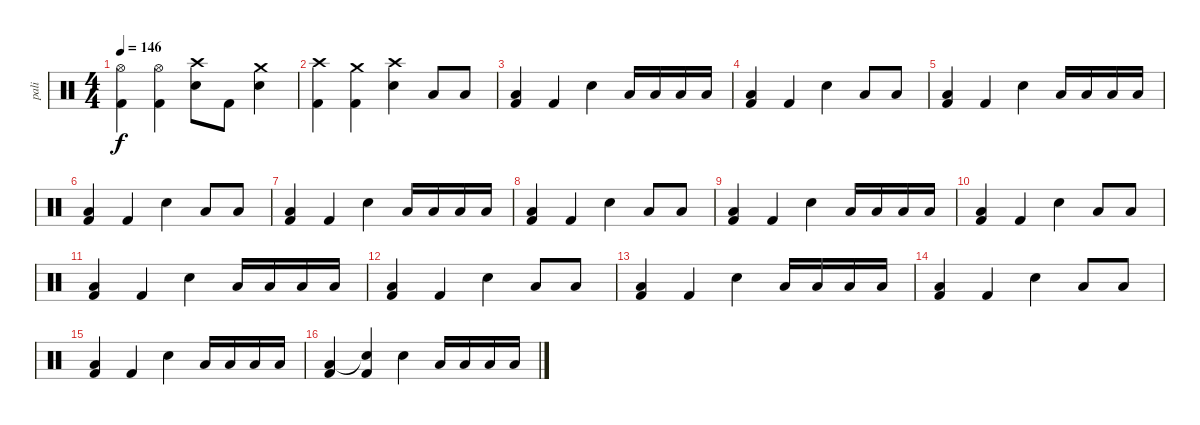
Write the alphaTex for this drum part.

\track ("pali" "pali") {instrument percussion}
\staff {score}
\articulation defaults
\ts (4 4)
\tempo 146
\clef neutral
\ks c
("Kick (hit) 2" "Hi-Hat (open)").4{dy f} ("Kick (hit) 2" "Hi-Hat (open)").4 ("Electric Snare (hit)" "Crash high (hit)").8 "Kick (hit) 2".8 ("Electric Snare (hit)" "Crash medium (hit)").4 |
("Kick (hit) 2" "Crash high (hit)").4 ("Kick (hit) 2" "Crash medium (hit)").4 ("Electric Snare (hit)" "Crash high (hit)").4 "Low Tom (hit)".8 "Low Tom (hit)".8 |
("Kick (hit) 2" "Low Floor Tom (hit)").4 "Kick (hit) 2".4 "Electric Snare (hit)".4 "Low Tom (hit)".16 "Low Tom (hit)".16 "Low Tom (hit)".16 "Low Tom (hit)".16 |
("Kick (hit) 2" "Low Floor Tom (hit)").4 "Kick (hit) 2".4 "Electric Snare (hit)".4 "Low Tom (hit)".8 "Low Tom (hit)".8 |
("Kick (hit) 2" "Low Floor Tom (hit)").4 "Kick (hit) 2".4 "Electric Snare (hit)".4 "Low Tom (hit)".16 "Low Tom (hit)".16 "Low Tom (hit)".16 "Low Tom (hit)".16 |
("Kick (hit) 2" "Low Floor Tom (hit)").4 "Kick (hit) 2".4 "Electric Snare (hit)".4 "Low Tom (hit)".8 "Low Tom (hit)".8 |
("Kick (hit) 2" "Low Floor Tom (hit)").4 "Kick (hit) 2".4 "Electric Snare (hit)".4 "Low Tom (hit)".16 "Low Tom (hit)".16 "Low Tom (hit)".16 "Low Tom (hit)".16 |
("Kick (hit) 2" "Low Floor Tom (hit)").4 "Kick (hit) 2".4 "Electric Snare (hit)".4 "Low Tom (hit)".8 "Low Tom (hit)".8 |
("Kick (hit) 2" "Low Floor Tom (hit)").4 "Kick (hit) 2".4 "Electric Snare (hit)".4 "Low Tom (hit)".16 "Low Tom (hit)".16 "Low Tom (hit)".16 "Low Tom (hit)".16 |
("Kick (hit) 2" "Low Floor Tom (hit)").4 "Kick (hit) 2".4 "Electric Snare (hit)".4 "Low Tom (hit)".8 "Low Tom (hit)".8 |
("Kick (hit) 2" "Low Floor Tom (hit)").4 "Kick (hit) 2".4 "Electric Snare (hit)".4 "Low Tom (hit)".16 "Low Tom (hit)".16 "Low Tom (hit)".16 "Low Tom (hit)".16 |
("Kick (hit) 2" "Low Floor Tom (hit)").4 "Kick (hit) 2".4 "Electric Snare (hit)".4 "Low Tom (hit)".8 "Low Tom (hit)".8 |
("Kick (hit) 2" "Low Floor Tom (hit)").4 "Kick (hit) 2".4 "Electric Snare (hit)".4 "Low Tom (hit)".16 "Low Tom (hit)".16 "Low Tom (hit)".16 "Low Tom (hit)".16 |
("Kick (hit) 2" "Low Floor Tom (hit)").4 "Kick (hit) 2".4 "Electric Snare (hit)".4 "Low Tom (hit)".8 "Low Tom (hit)".8 |
("Kick (hit) 2" "Low Floor Tom (hit)").4 "Kick (hit) 2".4 "Electric Snare (hit)".4 "Low Tom (hit)".16 "Low Tom (hit)".16 "Low Tom (hit)".16 "Low Tom (hit)".16 |
("Kick (hit) 2" "Low Floor Tom (hit)").4 ("Kick (hit) 2" "Snare (hit)"{t}).4 "Electric Snare (hit)".4 "Low Tom (hit)".16 "Low Tom (hit)".16 "Low Tom (hit)".16 "Low Tom (hit)".16
